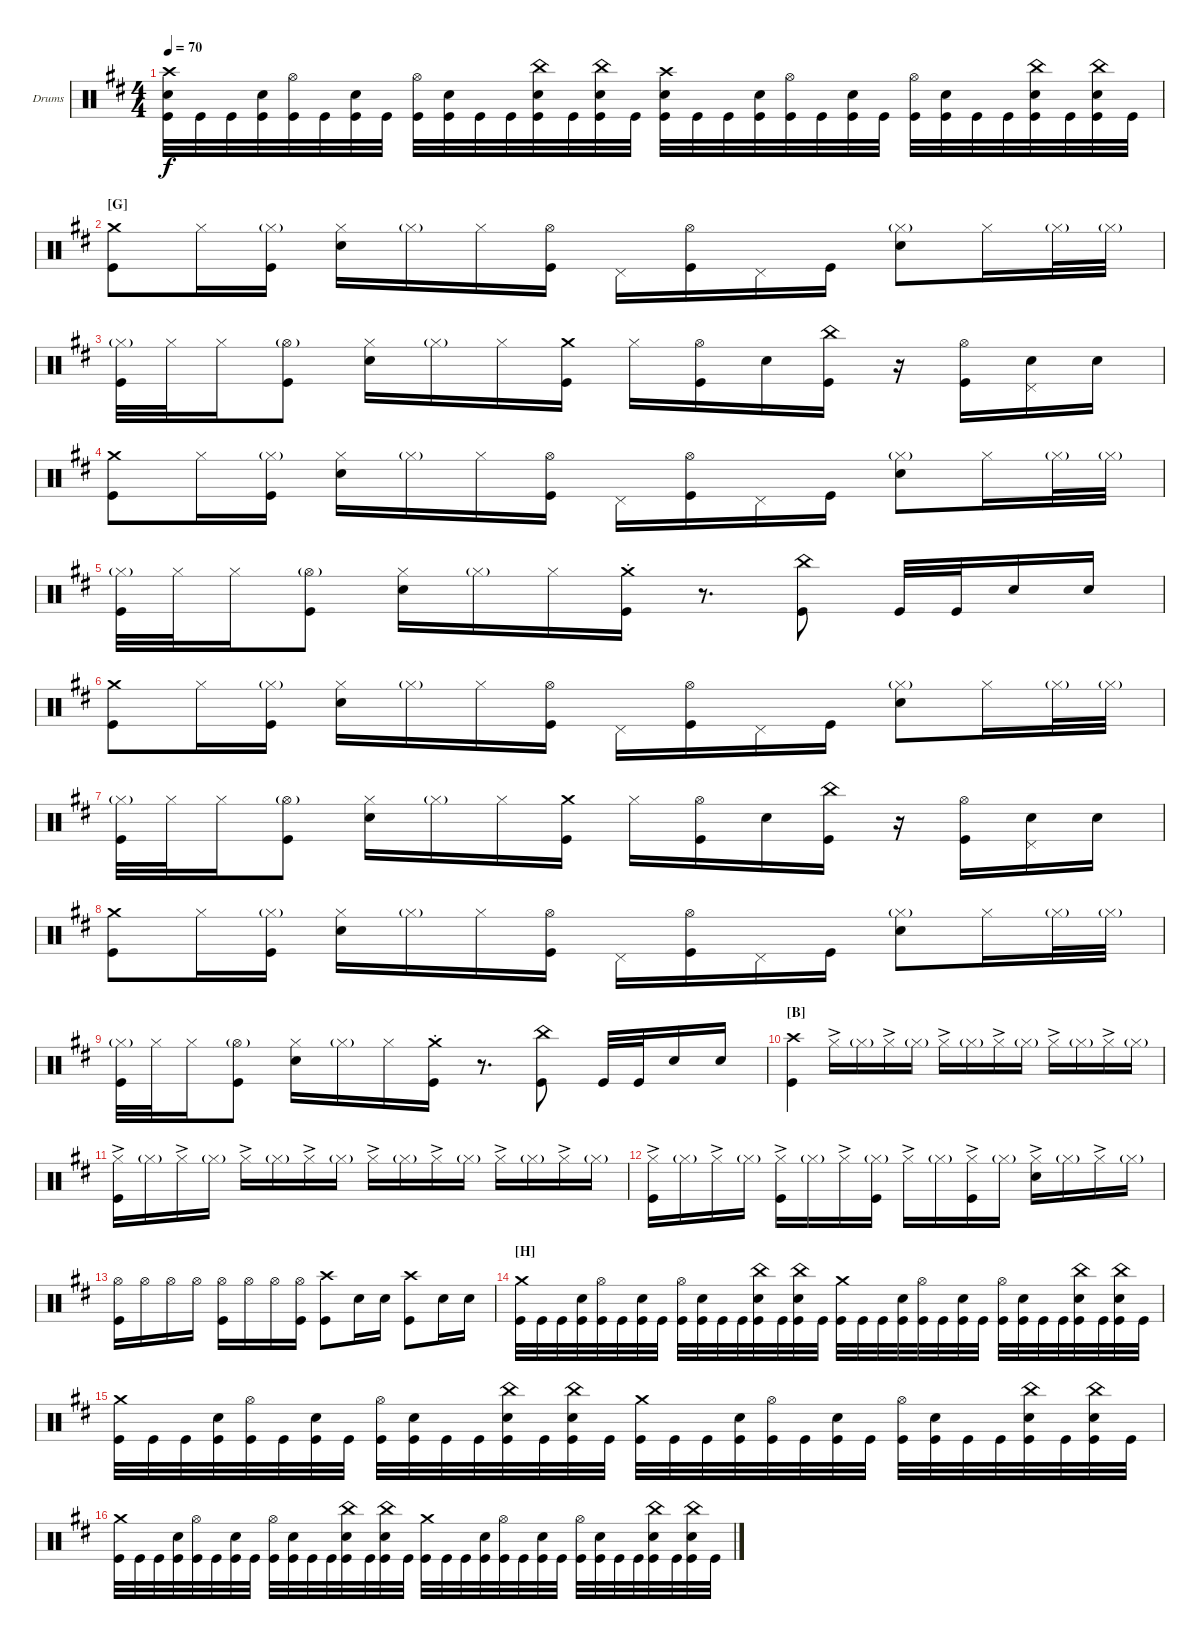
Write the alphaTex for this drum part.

\bracketExtendMode groupsimilarinstruments
\firstSystemTrackNameOrientation horizontal
\otherSystemsTrackNameOrientation horizontal
\track ("Drums" "Drums") {instrument percussion}
\staff {score}
\articulation defaults
\ts (4 4)
\tempo 70
\clef neutral
\ks bminor
("Kick (hit)" "Snare (hit) 2" "Crash high (hit)").32{dy f} "Kick (hit)".32 "Kick (hit)".32 ("Kick (hit)" "Snare (hit) 2").32 ("Kick (hit)" "Hi-Hat (open)").32 "Kick (hit)".32 ("Kick (hit)" "Snare (hit) 2").32 "Kick (hit)".32 ("Kick (hit)" "Hi-Hat (open)").32 ("Kick (hit)" "Snare (hit) 2").32 "Kick (hit)".32 "Kick (hit)".32 ("Kick (hit)" "Snare (hit) 2" "China (hit)").32 "Kick (hit)".32 ("Kick (hit)" "Snare (hit) 2" "China (hit)").32 "Kick (hit)".32 ("Kick (hit)" "Snare (hit) 2" "Crash high (hit)").32 "Kick (hit)".32 "Kick (hit)".32 ("Kick (hit)" "Snare (hit) 2").32 ("Kick (hit)" "Hi-Hat (open)").32 "Kick (hit)".32 ("Kick (hit)" "Snare (hit) 2").32 "Kick (hit)".32 ("Kick (hit)" "Hi-Hat (open)").32 ("Kick (hit)" "Snare (hit) 2").32 "Kick (hit)".32 "Kick (hit)".32 ("Kick (hit)" "Snare (hit) 2" "China (hit)").32 "Kick (hit)".32 ("Kick (hit)" "Snare (hit) 2" "China (hit)").32 "Kick (hit)".32 |
\section ("G" "")
("Kick (hit)" "Crash medium (hit)").8 "Hi-Hat (closed)".16 ("Hi-Hat (closed)"{g} "Kick (hit)").16 ("Hi-Hat (closed)" "Snare (hit) 2").16 "Hi-Hat (closed)"{g}.16 "Hi-Hat (closed)".16 ("Kick (hit)" "Hi-Hat (open)").16 "Pedal Hi-Hat (hit)".16 ("Kick (hit)" "Hi-Hat (open)").16 "Pedal Hi-Hat (hit)".16 "Kick (hit)".16 ("Hi-Hat (closed)"{g} "Snare (hit) 2").8 "Hi-Hat (closed)".16 "Hi-Hat (closed)"{g}.32 "Hi-Hat (closed)"{g}.32 |
("Hi-Hat (closed)"{g} "Kick (hit)").32 "Hi-Hat (closed)".32 "Hi-Hat (closed)".16 ("Hi-Hat (open)"{g} "Kick (hit)").8 ("Hi-Hat (closed)" "Snare (hit) 2").16 "Hi-Hat (closed)"{g}.16 "Hi-Hat (closed)".16 ("Kick (hit)" "Crash medium (hit)").16 "Hi-Hat (closed)".16 ("Kick (hit)" "Hi-Hat (open)").16 "Snare (hit) 2".16 ("Kick (hit)" "China (hit)").16 r.16 ("Kick (hit)" "Hi-Hat (open)").16 ("Snare (hit) 2" "Pedal Hi-Hat (hit)").16 "Snare (hit) 2".16 |
("Kick (hit)" "Crash medium (hit)").8 "Hi-Hat (closed)".16 ("Hi-Hat (closed)"{g} "Kick (hit)").16 ("Hi-Hat (closed)" "Snare (hit) 2").16 "Hi-Hat (closed)"{g}.16 "Hi-Hat (closed)".16 ("Kick (hit)" "Hi-Hat (open)").16 "Pedal Hi-Hat (hit)".16 ("Kick (hit)" "Hi-Hat (open)").16 "Pedal Hi-Hat (hit)".16 "Kick (hit)".16 ("Hi-Hat (closed)"{g} "Snare (hit) 2").8 "Hi-Hat (closed)".16 "Hi-Hat (closed)"{g}.32 "Hi-Hat (closed)"{g}.32 |
("Hi-Hat (closed)"{g} "Kick (hit)").32 "Hi-Hat (closed)".32 "Hi-Hat (closed)".16 ("Hi-Hat (open)"{g} "Kick (hit)").8 ("Hi-Hat (closed)" "Snare (hit) 2").16 "Hi-Hat (closed)"{g}.16 "Hi-Hat (closed)".16 ("Kick (hit)"{st} "Crash medium (hit)"{st}).16 r.8{d} ("Kick (hit)" "China (hit)").8 "Kick (hit)".32 "Kick (hit)".32 "Snare (hit) 2".16 "Snare (hit) 2".16 |
("Kick (hit)" "Crash medium (hit)").8 "Hi-Hat (closed)".16 ("Hi-Hat (closed)"{g} "Kick (hit)").16 ("Hi-Hat (closed)" "Snare (hit) 2").16 "Hi-Hat (closed)"{g}.16 "Hi-Hat (closed)".16 ("Kick (hit)" "Hi-Hat (open)").16 "Pedal Hi-Hat (hit)".16 ("Kick (hit)" "Hi-Hat (open)").16 "Pedal Hi-Hat (hit)".16 "Kick (hit)".16 ("Hi-Hat (closed)"{g} "Snare (hit) 2").8 "Hi-Hat (closed)".16 "Hi-Hat (closed)"{g}.32 "Hi-Hat (closed)"{g}.32 |
("Hi-Hat (closed)"{g} "Kick (hit)").32 "Hi-Hat (closed)".32 "Hi-Hat (closed)".16 ("Hi-Hat (open)"{g} "Kick (hit)").8 ("Hi-Hat (closed)" "Snare (hit) 2").16 "Hi-Hat (closed)"{g}.16 "Hi-Hat (closed)".16 ("Kick (hit)" "Crash medium (hit)").16 "Hi-Hat (closed)".16 ("Kick (hit)" "Hi-Hat (open)").16 "Snare (hit) 2".16 ("Kick (hit)" "China (hit)").16 r.16 ("Kick (hit)" "Hi-Hat (open)").16 ("Snare (hit) 2" "Pedal Hi-Hat (hit)").16 "Snare (hit) 2".16 |
("Kick (hit)" "Crash medium (hit)").8 "Hi-Hat (closed)".16 ("Hi-Hat (closed)"{g} "Kick (hit)").16 ("Hi-Hat (closed)" "Snare (hit) 2").16 "Hi-Hat (closed)"{g}.16 "Hi-Hat (closed)".16 ("Kick (hit)" "Hi-Hat (open)").16 "Pedal Hi-Hat (hit)".16 ("Kick (hit)" "Hi-Hat (open)").16 "Pedal Hi-Hat (hit)".16 "Kick (hit)".16 ("Hi-Hat (closed)"{g} "Snare (hit) 2").8 "Hi-Hat (closed)".16 "Hi-Hat (closed)"{g}.32 "Hi-Hat (closed)"{g}.32 |
("Hi-Hat (closed)"{g} "Kick (hit)").32 "Hi-Hat (closed)".32 "Hi-Hat (closed)".16 ("Hi-Hat (open)"{g} "Kick (hit)").8 ("Hi-Hat (closed)" "Snare (hit) 2").16 "Hi-Hat (closed)"{g}.16 "Hi-Hat (closed)".16 ("Kick (hit)"{st} "Crash medium (hit)"{st}).16 r.8{d} ("Kick (hit)" "China (hit)").8 "Kick (hit)".32 "Kick (hit)".32 "Snare (hit) 2".16 "Snare (hit) 2".16 |
\section ("B" "")
("Crash high (hit)" "Kick (hit)").4 "Hi-Hat (closed)"{ac}.16 "Hi-Hat (closed)"{g}.16 "Hi-Hat (closed)"{ac}.16 "Hi-Hat (closed)"{g}.16 "Hi-Hat (closed)"{ac}.16 "Hi-Hat (closed)"{g}.16 "Hi-Hat (closed)"{ac}.16 "Hi-Hat (closed)"{g}.16 "Hi-Hat (closed)"{ac}.16 "Hi-Hat (closed)"{g}.16 "Hi-Hat (closed)"{ac}.16 "Hi-Hat (closed)"{g}.16 |
("Hi-Hat (closed)"{ac} "Kick (hit)").16 "Hi-Hat (closed)"{g}.16 "Hi-Hat (closed)"{ac}.16 "Hi-Hat (closed)"{g}.16 "Hi-Hat (closed)"{ac}.16 "Hi-Hat (closed)"{g}.16 "Hi-Hat (closed)"{ac}.16 "Hi-Hat (closed)"{g}.16 "Hi-Hat (closed)"{ac}.16 "Hi-Hat (closed)"{g}.16 "Hi-Hat (closed)"{ac}.16 "Hi-Hat (closed)"{g}.16 "Hi-Hat (closed)"{ac}.16 "Hi-Hat (closed)"{g}.16 "Hi-Hat (closed)"{ac}.16 "Hi-Hat (closed)"{g}.16 |
("Hi-Hat (closed)"{ac} "Kick (hit)").16 "Hi-Hat (closed)"{g}.16 "Hi-Hat (closed)"{ac}.16 "Hi-Hat (closed)"{g}.16 ("Hi-Hat (closed)"{ac} "Kick (hit)").16 "Hi-Hat (closed)"{g}.16 "Hi-Hat (closed)"{ac}.16 ("Hi-Hat (closed)"{g} "Kick (hit)").16 "Hi-Hat (closed)"{ac}.16 "Hi-Hat (closed)"{g}.16 ("Hi-Hat (closed)"{ac} "Kick (hit)").16 "Hi-Hat (closed)"{g}.16 ("Hi-Hat (closed)"{ac} "Snare (hit) 2").16 "Hi-Hat (closed)"{g}.16 "Hi-Hat (closed)"{ac}.16 "Hi-Hat (closed)"{g}.16 |
("Hi-Hat (open)" "Kick (hit)").16 "Hi-Hat (open)".16 "Hi-Hat (open)".16 "Hi-Hat (open)".16 ("Hi-Hat (open)" "Kick (hit)").16 "Hi-Hat (open)".16 "Hi-Hat (open)".16 ("Kick (hit)" "Hi-Hat (open)").16 ("Crash high (hit)" "Kick (hit)").8 "Snare (hit) 2".16 "Snare (hit) 2".16 ("Crash high (hit)" "Kick (hit)").8 "Snare (hit) 2".16 "Snare (hit) 2".16 |
\section ("H" "")
("Kick (hit)" "Crash medium (hit)").32 "Kick (hit)".32 "Kick (hit)".32 ("Kick (hit)" "Snare (hit) 2").32 ("Kick (hit)" "Hi-Hat (open)").32 "Kick (hit)".32 ("Kick (hit)" "Snare (hit) 2").32 "Kick (hit)".32 ("Kick (hit)" "Hi-Hat (open)").32 ("Kick (hit)" "Snare (hit) 2").32 "Kick (hit)".32 "Kick (hit)".32 ("Kick (hit)" "Snare (hit) 2" "China (hit)").32 "Kick (hit)".32 ("Kick (hit)" "Snare (hit) 2" "China (hit)").32 "Kick (hit)".32 ("Kick (hit)" "Crash medium (hit)").32 "Kick (hit)".32 "Kick (hit)".32 ("Kick (hit)" "Snare (hit) 2").32 ("Kick (hit)" "Hi-Hat (open)").32 "Kick (hit)".32 ("Kick (hit)" "Snare (hit) 2").32 "Kick (hit)".32 ("Kick (hit)" "Hi-Hat (open)").32 ("Kick (hit)" "Snare (hit) 2").32 "Kick (hit)".32 "Kick (hit)".32 ("Kick (hit)" "Snare (hit) 2" "China (hit)").32 "Kick (hit)".32 ("Kick (hit)" "Snare (hit) 2" "China (hit)").32 "Kick (hit)".32 |
("Kick (hit)" "Crash medium (hit)").32 "Kick (hit)".32 "Kick (hit)".32 ("Kick (hit)" "Snare (hit) 2").32 ("Kick (hit)" "Hi-Hat (open)").32 "Kick (hit)".32 ("Kick (hit)" "Snare (hit) 2").32 "Kick (hit)".32 ("Kick (hit)" "Hi-Hat (open)").32 ("Kick (hit)" "Snare (hit) 2").32 "Kick (hit)".32 "Kick (hit)".32 ("Kick (hit)" "Snare (hit) 2" "China (hit)").32 "Kick (hit)".32 ("Kick (hit)" "Snare (hit) 2" "China (hit)").32 "Kick (hit)".32 ("Kick (hit)" "Crash medium (hit)").32 "Kick (hit)".32 "Kick (hit)".32 ("Kick (hit)" "Snare (hit) 2").32 ("Kick (hit)" "Hi-Hat (open)").32 "Kick (hit)".32 ("Kick (hit)" "Snare (hit) 2").32 "Kick (hit)".32 ("Kick (hit)" "Hi-Hat (open)").32 ("Kick (hit)" "Snare (hit) 2").32 "Kick (hit)".32 "Kick (hit)".32 ("Kick (hit)" "Snare (hit) 2" "China (hit)").32 "Kick (hit)".32 ("Kick (hit)" "Snare (hit) 2" "China (hit)").32 "Kick (hit)".32 |
("Kick (hit)" "Crash medium (hit)").32 "Kick (hit)".32 "Kick (hit)".32 ("Kick (hit)" "Snare (hit) 2").32 ("Kick (hit)" "Hi-Hat (open)").32 "Kick (hit)".32 ("Kick (hit)" "Snare (hit) 2").32 "Kick (hit)".32 ("Kick (hit)" "Hi-Hat (open)").32 ("Kick (hit)" "Snare (hit) 2").32 "Kick (hit)".32 "Kick (hit)".32 ("Kick (hit)" "Snare (hit) 2" "China (hit)").32 "Kick (hit)".32 ("Kick (hit)" "Snare (hit) 2" "China (hit)").32 "Kick (hit)".32 ("Kick (hit)" "Crash medium (hit)").32 "Kick (hit)".32 "Kick (hit)".32 ("Kick (hit)" "Snare (hit) 2").32 ("Kick (hit)" "Hi-Hat (open)").32 "Kick (hit)".32 ("Kick (hit)" "Snare (hit) 2").32 "Kick (hit)".32 ("Kick (hit)" "Hi-Hat (open)").32 ("Kick (hit)" "Snare (hit) 2").32 "Kick (hit)".32 "Kick (hit)".32 ("Kick (hit)" "Snare (hit) 2" "China (hit)").32 "Kick (hit)".32 ("Kick (hit)" "Snare (hit) 2" "China (hit)").32 "Kick (hit)".32
